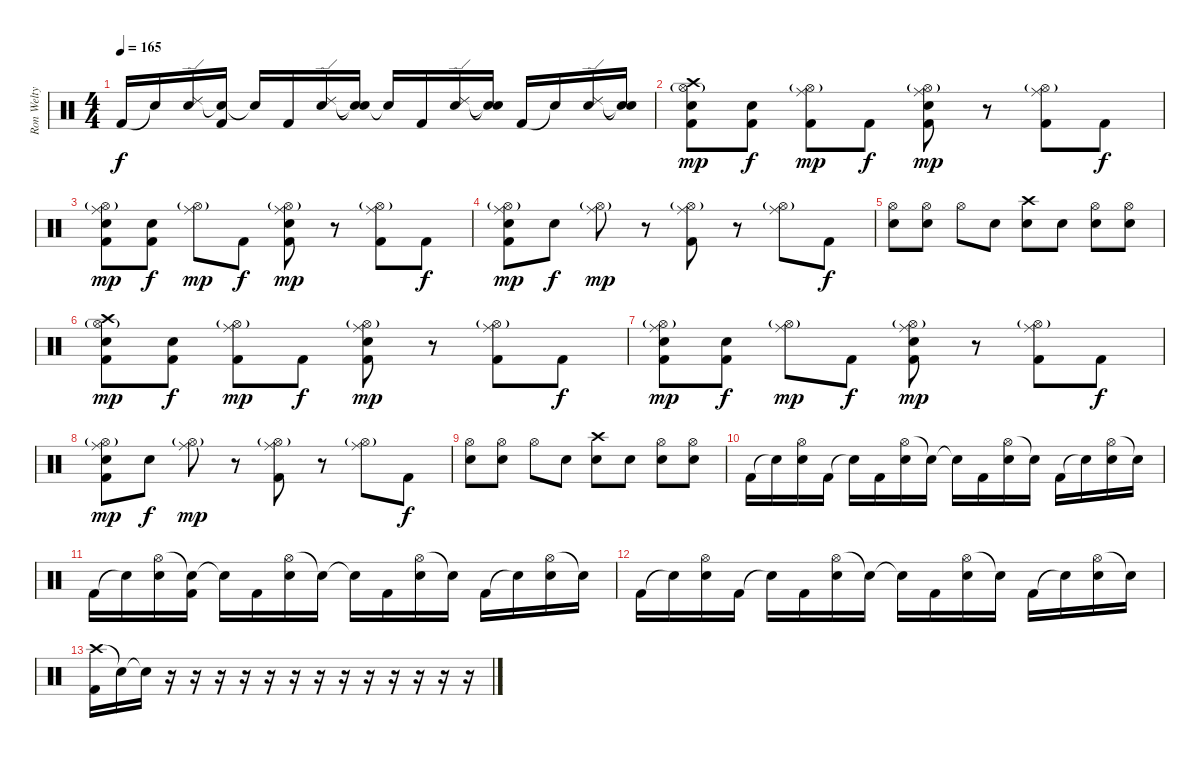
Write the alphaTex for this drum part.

\track ("Ron Welty" "Ron Welty") {instrument percussion}
\staff {score}
\articulation defaults
\ts (4 4)
\tempo 165
\clef neutral
\ks c "Kick (hit) 2".16{dy f} "Snare (hit)"{t}.16
("Ride (edge) 2" "Electric Snare (hit)").16 ("Snare (hit)"{t} "Kick (hit) 2").16 "Snare (hit)"{t}.16 "Kick (hit) 2".16 ("Ride (edge) 2" "Electric Snare (hit)").16 ("Snare (hit)"{t} "Snare (hit)"{t}).16 "Snare (hit)"{t}.16 "Kick (hit) 2".16 ("Ride (edge) 2" "Electric Snare (hit)").16 ("Snare (hit)"{t} "Snare (hit)"{t}).16 "Kick (hit) 2".16 "Snare (hit)"{t}.16 ("Ride (edge) 2" "Electric Snare (hit)").16 ("Snare (hit)"{t} "Snare (hit)"{t}).16 |
("Crash high (hit)" "Snare (hit) 2" "Hi-Hat (open)"{g} "Kick (hit) 2").8{dy mp} ("Snare (hit) 2" "Kick (hit) 2").8{dy f} ("Ride (middle)" "Hi-Hat (open)"{g} "Kick (hit) 2").8{dy mp} "Kick (hit) 2".8{dy f} ("Ride (middle)" "Snare (hit) 2" "Hi-Hat (open)"{g} "Kick (hit) 2").8{dy mp} r.8 ("Ride (middle)" "Hi-Hat (open)"{g} "Kick (hit) 2").8 "Kick (hit) 2".8{dy f} |
("Ride (middle)" "Snare (hit) 2" "Hi-Hat (open)"{g} "Kick (hit) 2").8{dy mp} ("Snare (hit) 2" "Kick (hit) 2").8{dy f} ("Ride (middle)" "Hi-Hat (open)"{g}).8{dy mp} "Kick (hit) 2".8{dy f} ("Ride (middle)" "Snare (hit) 2" "Hi-Hat (open)"{g} "Kick (hit) 2").8{dy mp} r.8 ("Ride (middle)" "Hi-Hat (open)"{g} "Kick (hit) 2").8 "Kick (hit) 2".8{dy f} |
("Ride (middle)" "Snare (hit) 2" "Hi-Hat (open)"{g} "Kick (hit) 2").8{dy mp} "Snare (hit) 2".8{dy f} ("Ride (middle)" "Hi-Hat (open)"{g}).8{dy mp} r.8 ("Ride (middle)" "Hi-Hat (open)"{g} "Kick (hit) 2").8 r.8 ("Ride (middle)" "Hi-Hat (open)"{g}).8 "Kick (hit) 2".8{dy f} |
("Hi-Hat (open)" "Snare (hit) 2").8 ("Hi-Hat (open)" "Snare (hit) 2").8 "Hi-Hat (open)".8 "Snare (hit) 2".8 ("Crash high (hit)" "Snare (hit) 2").8 "Electric Snare (hit)".8 ("Hi-Hat (open)" "Snare (hit) 2").8 ("Hi-Hat (open)" "Electric Snare (hit)").8 |
("Crash high (hit)" "Snare (hit) 2" "Hi-Hat (open)"{g} "Kick (hit) 2").8{dy mp} ("Snare (hit) 2" "Kick (hit) 2").8{dy f} ("Ride (middle)" "Hi-Hat (open)"{g} "Kick (hit) 2").8{dy mp} "Kick (hit) 2".8{dy f} ("Ride (middle)" "Snare (hit) 2" "Hi-Hat (open)"{g} "Kick (hit) 2").8{dy mp} r.8 ("Ride (middle)" "Hi-Hat (open)"{g} "Kick (hit) 2").8 "Kick (hit) 2".8{dy f} |
("Ride (middle)" "Snare (hit) 2" "Hi-Hat (open)"{g} "Kick (hit) 2").8{dy mp} ("Snare (hit) 2" "Kick (hit) 2").8{dy f} ("Ride (middle)" "Hi-Hat (open)"{g}).8{dy mp} "Kick (hit) 2".8{dy f} ("Ride (middle)" "Snare (hit) 2" "Hi-Hat (open)"{g} "Kick (hit) 2").8{dy mp} r.8 ("Ride (middle)" "Hi-Hat (open)"{g} "Kick (hit) 2").8 "Kick (hit) 2".8{dy f} |
("Ride (middle)" "Snare (hit) 2" "Hi-Hat (open)"{g} "Kick (hit) 2").8{dy mp} "Snare (hit) 2".8{dy f} ("Ride (middle)" "Hi-Hat (open)"{g}).8{dy mp} r.8 ("Ride (middle)" "Hi-Hat (open)"{g} "Kick (hit) 2").8 r.8 ("Ride (middle)" "Hi-Hat (open)"{g}).8 "Kick (hit) 2".8{dy f} |
("Hi-Hat (open)" "Snare (hit) 2").8 ("Hi-Hat (open)" "Snare (hit) 2").8 "Hi-Hat (open)".8 "Snare (hit) 2".8 ("Crash high (hit)" "Snare (hit) 2").8 "Electric Snare (hit)".8 ("Hi-Hat (open)" "Snare (hit) 2").8 ("Hi-Hat (open)" "Electric Snare (hit)").8 |
"Kick (hit) 2".16 "Snare (hit)"{t}.16 ("Hi-Hat (open)" "Electric Snare (hit)").16 "Kick (hit) 2".16 "Snare (hit)"{t}.16 "Kick (hit) 2".16 ("Hi-Hat (open)" "Electric Snare (hit)").16 "Snare (hit)"{t}.16 "Snare (hit)"{t}.16 "Kick (hit) 2".16 ("Hi-Hat (open)" "Electric Snare (hit)").16 "Snare (hit)"{t}.16 "Kick (hit) 2".16 "Snare (hit)"{t}.16 ("Hi-Hat (open)" "Electric Snare (hit)").16 "Snare (hit)"{t}.16 |
"Kick (hit) 2".16 "Snare (hit)"{t}.16 ("Hi-Hat (open)" "Electric Snare (hit)").16 ("Snare (hit)"{t} "Kick (hit) 2").16 "Snare (hit)"{t}.16 "Kick (hit) 2".16 ("Hi-Hat (open)" "Electric Snare (hit)").16 "Snare (hit)"{t}.16 "Snare (hit)"{t}.16 "Kick (hit) 2".16 ("Hi-Hat (open)" "Electric Snare (hit)").16 "Snare (hit)"{t}.16 "Kick (hit) 2".16 "Snare (hit)"{t}.16 ("Hi-Hat (open)" "Electric Snare (hit)").16 "Snare (hit)"{t}.16 |
"Kick (hit) 2".16 "Snare (hit)"{t}.16 ("Hi-Hat (open)" "Electric Snare (hit)").16 "Kick (hit) 2".16 "Snare (hit)"{t}.16 "Kick (hit) 2".16 ("Hi-Hat (open)" "Electric Snare (hit)").16 "Snare (hit)"{t}.16 "Snare (hit)"{t}.16 "Kick (hit) 2".16 ("Hi-Hat (open)" "Electric Snare (hit)").16 "Snare (hit)"{t}.16 "Kick (hit) 2".16 "Snare (hit)"{t}.16 ("Hi-Hat (open)" "Electric Snare (hit)").16 "Snare (hit)"{t}.16 |
("Crash high (hit)" "Kick (hit) 2").16 "Snare (hit)"{t}.16 "Snare (hit)"{t}.16 r.16 r.16 r.16 r.16 r.16 r.16 r.16 r.16 r.16 r.16 r.16 r.16 r.16
